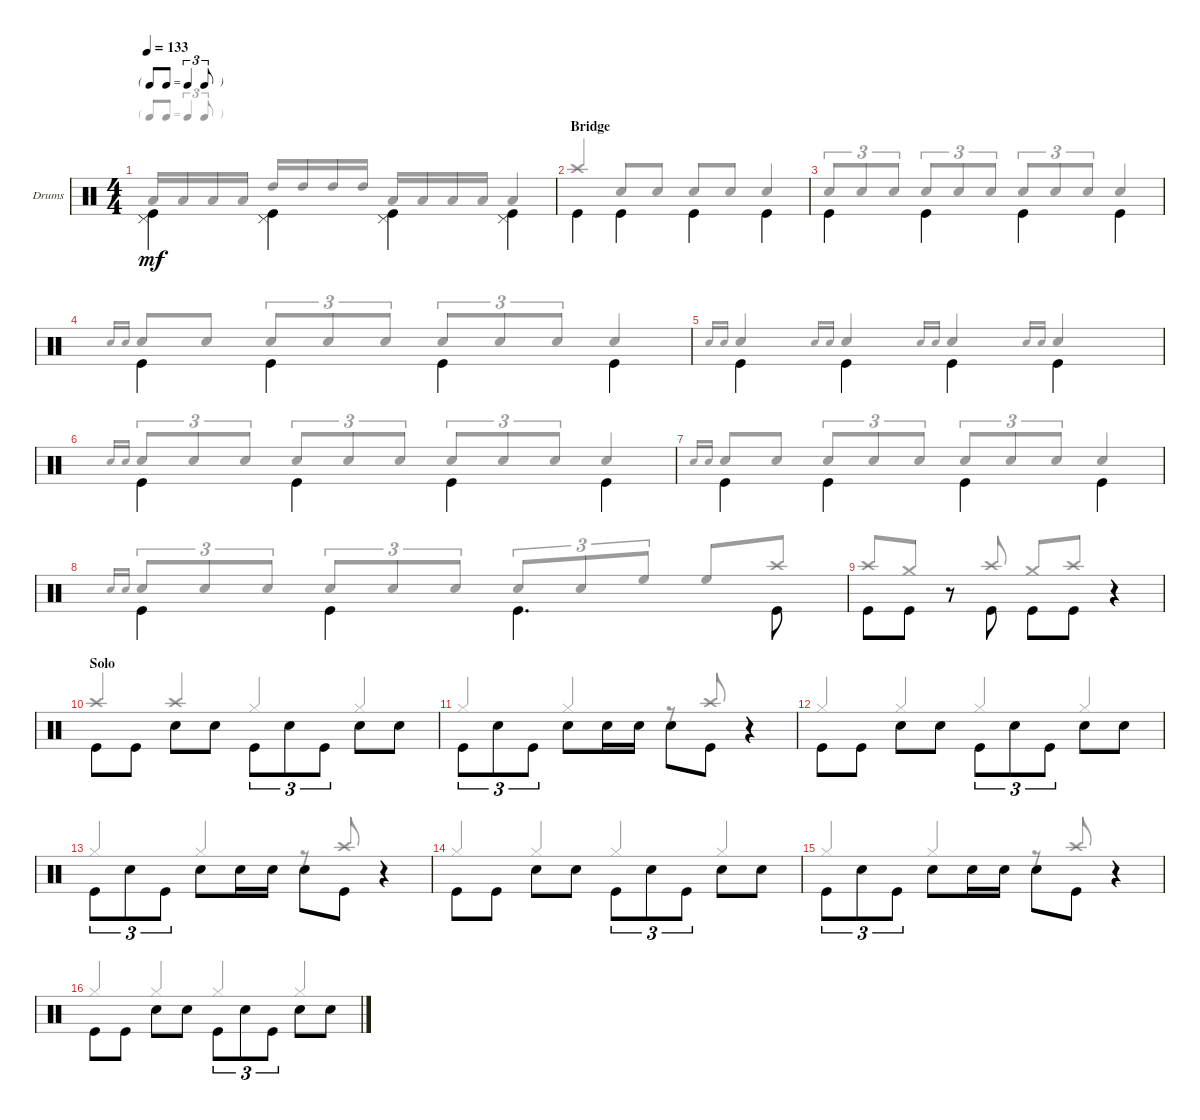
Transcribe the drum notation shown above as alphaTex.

\defaultSystemsLayout 4
\bracketExtendMode groupsimilarinstruments
\firstSystemTrackNameOrientation horizontal
\otherSystemsTrackNameOrientation horizontal
\track ("PETER CRISS" "Drums") {solo instrument percussion}
\staff {score}
\articulation defaults
\voice
\ts (4 4)
\tf triplet8th
\tempo 133
\clef neutral
\ks c
("Kick (hit)" "Pedal Hi-Hat (hit)").4{dy mf beam invert} ("Kick (hit)" "Pedal Hi-Hat (hit)").4{beam invert} ("Kick (hit)" "Pedal Hi-Hat (hit)").4{beam invert} ("Kick (hit)" "Pedal Hi-Hat (hit)").4{beam invert} |
\section ("" "Bridge")
"Kick (hit)".4{beam invert} "Kick (hit)".4{beam invert} "Kick (hit)".4{beam invert} "Kick (hit)".4{beam invert} |
"Kick (hit)".4{beam invert} "Kick (hit)".4{beam invert} "Kick (hit)".4{beam invert} "Kick (hit)".4{beam invert} |
"Kick (hit)".4{beam invert} "Kick (hit)".4{beam invert} "Kick (hit)".4{beam invert} "Kick (hit)".4{beam invert} |
"Kick (hit)".4{beam invert} "Kick (hit)".4{beam invert} "Kick (hit)".4{beam invert} "Kick (hit)".4{beam invert} |
"Kick (hit)".4{beam invert} "Kick (hit)".4{beam invert} "Kick (hit)".4{beam invert} "Kick (hit)".4{beam invert} |
"Kick (hit)".4{beam invert} "Kick (hit)".4{beam invert} "Kick (hit)".4{beam invert} "Kick (hit)".4{beam invert} |
"Kick (hit)".4{beam invert} "Kick (hit)".4{beam invert} "Kick (hit)".4{d beam invert} "Kick (hit)".8{beam invert} |
"Kick (hit)".8{beam invert} "Kick (hit)".8 r.8 "Kick (hit)".8{beam invert} "Kick (hit)".8{beam invert} "Kick (hit)".8 r.4 |
\section ("" "Solo")
"Kick (hit)".8{beam invert} "Kick (hit)".8 "Snare (hit) 2".8{beam invert} "Snare (hit) 2".8 "Kick (hit)".8{tu (3 2) beam invert} "Snare (hit) 2".8{tu (3 2)} "Kick (hit)".8{tu (3 2)} "Snare (hit) 2".8{beam invert} "Snare (hit) 2".8 |
"Kick (hit)".8{tu (3 2) beam invert} "Snare (hit) 2".8{tu (3 2)} "Kick (hit)".8{tu (3 2)} "Snare (hit) 2".8{beam invert} "Snare (hit) 2".16 "Snare (hit) 2".16 "Snare (hit) 2".8{beam invert} "Kick (hit)".8 r.4 |
"Kick (hit)".8{beam invert} "Kick (hit)".8 "Snare (hit) 2".8{beam invert} "Snare (hit) 2".8 "Kick (hit)".8{tu (3 2) beam invert} "Snare (hit) 2".8{tu (3 2)} "Kick (hit)".8{tu (3 2)} "Snare (hit) 2".8{beam invert} "Snare (hit) 2".8 |
"Kick (hit)".8{tu (3 2) beam invert} "Snare (hit) 2".8{tu (3 2)} "Kick (hit)".8{tu (3 2)} "Snare (hit) 2".8{beam invert} "Snare (hit) 2".16 "Snare (hit) 2".16 "Snare (hit) 2".8{beam invert} "Kick (hit)".8 r.4 |
"Kick (hit)".8{beam invert} "Kick (hit)".8 "Snare (hit) 2".8{beam invert} "Snare (hit) 2".8 "Kick (hit)".8{tu (3 2) beam invert} "Snare (hit) 2".8{tu (3 2)} "Kick (hit)".8{tu (3 2)} "Snare (hit) 2".8{beam invert} "Snare (hit) 2".8 |
"Kick (hit)".8{tu (3 2) beam invert} "Snare (hit) 2".8{tu (3 2)} "Kick (hit)".8{tu (3 2)} "Snare (hit) 2".8{beam invert} "Snare (hit) 2".16 "Snare (hit) 2".16 "Snare (hit) 2".8{beam invert} "Kick (hit)".8 r.4 |
"Kick (hit)".8{beam invert} "Kick (hit)".8 "Snare (hit) 2".8{beam invert} "Snare (hit) 2".8 "Kick (hit)".8{tu (3 2) beam invert} "Snare (hit) 2".8{tu (3 2)} "Kick (hit)".8{tu (3 2)} "Snare (hit) 2".8{beam invert} "Snare (hit) 2".8
\voice
\clef neutral
\ottava regular
\simile none
\ks c "Low Tom (hit)".16{dy mf beam invert} "Low Tom (hit)".16 "Low Tom (hit)".16 "Low Tom (hit)".16 "High Tom (hit)".16{beam invert} "High Tom (hit)".16 "High Tom (hit)".16 "High Tom (hit)".16 "Low Tom (hit)".16{beam invert} "Low Tom (hit)".16 "Low Tom (hit)".16 "Low Tom (hit)".16 "Low Tom (hit)".4{beam invert}
|
"Crash high (hit)".4{beam invert} "Snare (hit) 2".8{beam invert} "Snare (hit) 2".8 "Snare (hit) 2".8{beam invert} "Snare (hit) 2".8 "Snare (hit) 2".4{beam invert} |
"Snare (hit) 2".8{tu (3 2) beam invert} "Snare (hit) 2".8{tu (3 2)} "Snare (hit) 2".8{tu (3 2)} "Snare (hit) 2".8{tu (3 2) beam invert} "Snare (hit) 2".8{tu (3 2)} "Snare (hit) 2".8{tu (3 2)} "Snare (hit) 2".8{tu (3 2) beam invert} "Snare (hit) 2".8{tu (3 2)} "Snare (hit) 2".8{tu (3 2)} "Snare (hit) 2".4{beam invert} |
"Snare (hit) 2".16{gr onbeat} "Snare (hit) 2".16{gr onbeat beam invert} "Snare (hit) 2".8{beam invert} "Snare (hit) 2".8 "Snare (hit) 2".8{tu (3 2) beam invert} "Snare (hit) 2".8{tu (3 2)} "Snare (hit) 2".8{tu (3 2)} "Snare (hit) 2".8{tu (3 2) beam invert} "Snare (hit) 2".8{tu (3 2)} "Snare (hit) 2".8{tu (3 2)} "Snare (hit) 2".4{beam invert} |
"Snare (hit) 2".16{gr onbeat} "Snare (hit) 2".16{gr onbeat beam invert} "Snare (hit) 2".4{beam invert} "Snare (hit) 2".16{gr onbeat} "Snare (hit) 2".16{gr onbeat beam invert} "Snare (hit) 2".4{beam invert} "Snare (hit) 2".16{gr onbeat} "Snare (hit) 2".16{gr onbeat beam invert} "Snare (hit) 2".4{beam invert} "Snare (hit) 2".16{gr onbeat} "Snare (hit) 2".16{gr onbeat beam invert} "Snare (hit) 2".4{beam invert} |
"Snare (hit) 2".16{gr onbeat} "Snare (hit) 2".16{gr onbeat beam invert} "Snare (hit) 2".8{tu (3 2) beam invert} "Snare (hit) 2".8{tu (3 2)} "Snare (hit) 2".8{tu (3 2)} "Snare (hit) 2".8{tu (3 2) beam invert} "Snare (hit) 2".8{tu (3 2)} "Snare (hit) 2".8{tu (3 2)} "Snare (hit) 2".8{tu (3 2) beam invert} "Snare (hit) 2".8{tu (3 2)} "Snare (hit) 2".8{tu (3 2)} "Snare (hit) 2".4{beam invert} |
"Snare (hit) 2".16{gr onbeat} "Snare (hit) 2".16{gr onbeat beam invert} "Snare (hit) 2".8{beam invert} "Snare (hit) 2".8 "Snare (hit) 2".8{tu (3 2) beam invert} "Snare (hit) 2".8{tu (3 2)} "Snare (hit) 2".8{tu (3 2)} "Snare (hit) 2".8{tu (3 2) beam invert} "Snare (hit) 2".8{tu (3 2)} "Snare (hit) 2".8{tu (3 2)} "Snare (hit) 2".4{beam invert} |
"Snare (hit) 2".16{gr onbeat} "Snare (hit) 2".16{gr onbeat beam invert} "Snare (hit) 2".8{tu (3 2) beam invert} "Snare (hit) 2".8{tu (3 2)} "Snare (hit) 2".8{tu (3 2)} "Snare (hit) 2".8{tu (3 2) beam invert} "Snare (hit) 2".8{tu (3 2)} "Snare (hit) 2".8{tu (3 2)} "Snare (hit) 2".8{tu (3 2) beam invert} "Snare (hit) 2".8{tu (3 2)} "High Floor Tom (hit)".8{tu (3 2)} "High Floor Tom (hit)".8{beam invert} "Crash high (hit)".8 |
"Crash high (hit)".8{beam invert} "Crash medium (hit)".8 r.8{beam invert} "Crash high (hit)".8{beam invert} "Crash medium (hit)".8{beam invert} "Crash high (hit)".8 r.4{beam invert} |
"Crash high (hit)".4{beam invert} "Crash high (hit)".4{beam invert} "Hi-Hat (closed)".4{beam invert} "Hi-Hat (closed)".4{beam invert} |
"Hi-Hat (closed)".4{beam invert} "Hi-Hat (closed)".4{beam invert} r.8{beam invert} "Crash high (hit)".8{beam invert} r.4 |
"Hi-Hat (closed)".4{beam invert} "Hi-Hat (closed)".4{beam invert} "Hi-Hat (closed)".4{beam invert} "Hi-Hat (closed)".4{beam invert} |
"Hi-Hat (closed)".4{beam invert} "Hi-Hat (closed)".4{beam invert} r.8{beam invert} "Crash high (hit)".8{beam invert} r.4 |
"Hi-Hat (closed)".4{beam invert} "Hi-Hat (closed)".4{beam invert} "Hi-Hat (closed)".4{beam invert} "Hi-Hat (closed)".4{beam invert} |
"Hi-Hat (closed)".4{beam invert} "Hi-Hat (closed)".4{beam invert} r.8{beam invert} "Crash high (hit)".8{beam invert} r.4 |
"Hi-Hat (closed)".4{beam invert} "Hi-Hat (closed)".4{beam invert} "Hi-Hat (closed)".4{beam invert} "Hi-Hat (closed)".4{beam invert}
